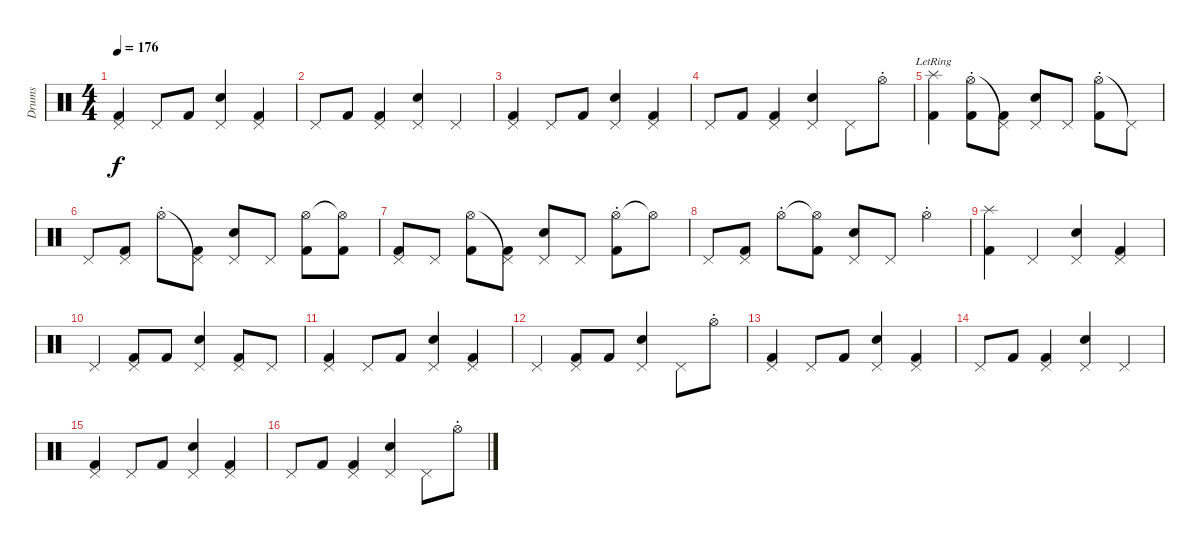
\track ("Drums" "Drums") {instrument percussion}
\staff {score}
\articulation defaults
\ts (4 4)
\tempo 176
\clef neutral
\ks c
("Pedal Hi-Hat (hit)" "Kick (hit) 2").4{dy f} "Pedal Hi-Hat (hit)".8 "Kick (hit) 2".8 ("Pedal Hi-Hat (hit)" "Electric Snare (hit)").4 ("Pedal Hi-Hat (hit)" "Kick (hit) 2").4 |
"Pedal Hi-Hat (hit)".8 "Kick (hit) 2".8 ("Pedal Hi-Hat (hit)" "Kick (hit) 2").4 ("Pedal Hi-Hat (hit)" "Electric Snare (hit)").4 "Pedal Hi-Hat (hit)".4 |
("Pedal Hi-Hat (hit)" "Kick (hit) 2").4 "Pedal Hi-Hat (hit)".8 "Kick (hit) 2".8 ("Pedal Hi-Hat (hit)" "Electric Snare (hit)").4 ("Pedal Hi-Hat (hit)" "Kick (hit) 2").4 |
"Pedal Hi-Hat (hit)".8 "Kick (hit) 2".8 ("Kick (hit) 2" "Pedal Hi-Hat (hit)").4 ("Pedal Hi-Hat (hit)" "Electric Snare (hit)").4 "Pedal Hi-Hat (hit)".8 "Hi-Hat (open)"{st}.8 |
("Kick (hit) 2"{lr} "Splash (hit)").4 ("Hi-Hat (open)"{st} "Kick (hit) 2").8 ("Pedal Hi-Hat (hit)"{t} "Kick (hit) 2").8 ("Pedal Hi-Hat (hit)" "Electric Snare (hit)").8 "Pedal Hi-Hat (hit)".8 ("Hi-Hat (open)"{st} "Kick (hit) 2").8 "Pedal Hi-Hat (hit)"{t}.8 |
"Pedal Hi-Hat (hit)".8 ("Pedal Hi-Hat (hit)" "Kick (hit) 2").8 "Hi-Hat (open)"{st}.8 ("Pedal Hi-Hat (hit)"{t} "Kick (hit) 2").8 ("Pedal Hi-Hat (hit)" "Electric Snare (hit)").8 "Pedal Hi-Hat (hit)".8 ("Hi-Hat (open)" "Kick (hit) 2").8 ("Hi-Hat (open)"{t} "Kick (hit) 2").8 |
("Kick (hit) 2" "Pedal Hi-Hat (hit)").8 "Pedal Hi-Hat (hit)".8 ("Hi-Hat (open)" "Kick (hit) 2").8 ("Pedal Hi-Hat (hit)"{t} "Kick (hit) 2").8 ("Pedal Hi-Hat (hit)" "Electric Snare (hit)").8 "Pedal Hi-Hat (hit)".8 ("Hi-Hat (open)"{st} "Kick (hit) 2").8 "Hi-Hat (open)"{t}.8 |
"Pedal Hi-Hat (hit)".8 ("Pedal Hi-Hat (hit)" "Kick (hit) 2").8 "Hi-Hat (open)"{st}.8 ("Hi-Hat (open)"{t} "Kick (hit) 2").8 ("Pedal Hi-Hat (hit)" "Electric Snare (hit)").8 "Pedal Hi-Hat (hit)".8 "Hi-Hat (open)"{st}.4 |
("Splash (hit)" "Kick (hit) 2").4 "Pedal Hi-Hat (hit)".4 ("Pedal Hi-Hat (hit)" "Electric Snare (hit)").4 ("Pedal Hi-Hat (hit)" "Kick (hit) 2").4 |
"Pedal Hi-Hat (hit)".4 ("Pedal Hi-Hat (hit)" "Kick (hit) 2").8 "Kick (hit) 2".8 ("Pedal Hi-Hat (hit)" "Electric Snare (hit)").4 ("Kick (hit) 2" "Pedal Hi-Hat (hit)").8 "Pedal Hi-Hat (hit)".8 |
("Pedal Hi-Hat (hit)" "Kick (hit) 2").4 "Pedal Hi-Hat (hit)".8 "Kick (hit) 2".8 ("Pedal Hi-Hat (hit)" "Electric Snare (hit)").4 ("Pedal Hi-Hat (hit)" "Kick (hit) 2").4 |
"Pedal Hi-Hat (hit)".4 ("Pedal Hi-Hat (hit)" "Kick (hit) 2").8 "Kick (hit) 2".8 ("Pedal Hi-Hat (hit)" "Electric Snare (hit)").4 "Pedal Hi-Hat (hit)".8 "Hi-Hat (open)"{st}.8 |
("Pedal Hi-Hat (hit)" "Kick (hit) 2").4 "Pedal Hi-Hat (hit)".8 "Kick (hit) 2".8 ("Pedal Hi-Hat (hit)" "Electric Snare (hit)").4 ("Pedal Hi-Hat (hit)" "Kick (hit) 2").4 |
"Pedal Hi-Hat (hit)".8 "Kick (hit) 2".8 ("Pedal Hi-Hat (hit)" "Kick (hit) 2").4 ("Pedal Hi-Hat (hit)" "Electric Snare (hit)").4 "Pedal Hi-Hat (hit)".4 |
("Pedal Hi-Hat (hit)" "Kick (hit) 2").4 "Pedal Hi-Hat (hit)".8 "Kick (hit) 2".8 ("Pedal Hi-Hat (hit)" "Electric Snare (hit)").4 ("Pedal Hi-Hat (hit)" "Kick (hit) 2").4 |
"Pedal Hi-Hat (hit)".8 "Kick (hit) 2".8 ("Kick (hit) 2" "Pedal Hi-Hat (hit)").4 ("Pedal Hi-Hat (hit)" "Electric Snare (hit)").4 "Pedal Hi-Hat (hit)".8 "Hi-Hat (open)"{st}.8
